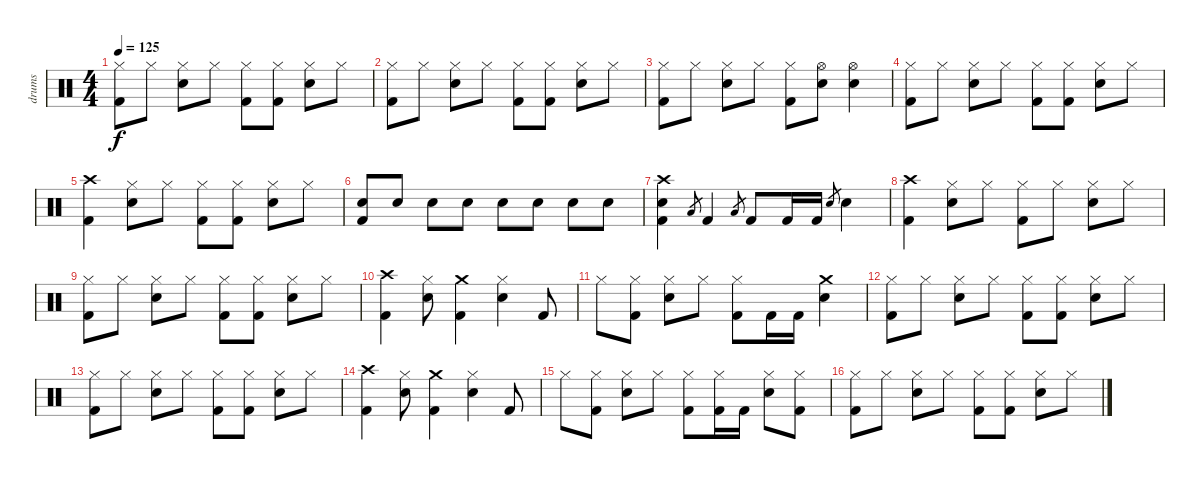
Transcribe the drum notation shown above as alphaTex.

\track ("drums" "drums") {instrument percussion}
\staff {score}
\articulation defaults
\ts (4 4)
\tempo 125
\clef neutral
\ks c
("Hi-Hat (closed)" "Kick (hit) 2").8{dy f} "Hi-Hat (closed)".8 ("Hi-Hat (closed)" "Electric Snare (hit)").8 "Hi-Hat (closed)".8 ("Hi-Hat (closed)" "Kick (hit) 2").8 ("Hi-Hat (closed)" "Kick (hit) 2").8 ("Hi-Hat (closed)" "Electric Snare (hit)").8 "Hi-Hat (closed)".8 |
("Hi-Hat (closed)" "Kick (hit) 2").8 "Hi-Hat (closed)".8 ("Hi-Hat (closed)" "Electric Snare (hit)").8 "Hi-Hat (closed)".8 ("Hi-Hat (closed)" "Kick (hit) 2").8 ("Hi-Hat (closed)" "Kick (hit) 2").8 ("Hi-Hat (closed)" "Electric Snare (hit)").8 "Hi-Hat (closed)".8 |
("Hi-Hat (closed)" "Kick (hit) 2").8 "Hi-Hat (closed)".8 ("Hi-Hat (closed)" "Electric Snare (hit)").8 "Hi-Hat (closed)".8 ("Hi-Hat (closed)" "Kick (hit) 2").8 ("Hi-Hat (open)" "Electric Snare (hit)").8 ("Hi-Hat (open)" "Electric Snare (hit)").4 |
("Hi-Hat (closed)" "Kick (hit) 2").8 "Hi-Hat (closed)".8 ("Hi-Hat (closed)" "Electric Snare (hit)").8 "Hi-Hat (closed)".8 ("Hi-Hat (closed)" "Kick (hit) 2").8 ("Hi-Hat (closed)" "Kick (hit) 2").8 ("Hi-Hat (closed)" "Electric Snare (hit)").8 "Hi-Hat (closed)".8 |
("Crash high (hit)" "Kick (hit) 2").4 ("Hi-Hat (closed)" "Electric Snare (hit)").8 "Hi-Hat (closed)".8 ("Hi-Hat (closed)" "Kick (hit) 2").8 ("Hi-Hat (closed)" "Kick (hit) 2").8 ("Hi-Hat (closed)" "Electric Snare (hit)").8 "Hi-Hat (closed)".8 |
("Electric Snare (hit)" "Kick (hit) 2").8 "Electric Snare (hit)".8 "Electric Snare (hit)".8 "Electric Snare (hit)".8 "Electric Snare (hit)".8 "Electric Snare (hit)".8 "Electric Snare (hit)".8 "Electric Snare (hit)".8 |
("Crash high (hit)" "Electric Snare (hit)" "Kick (hit) 2").4 "Low Floor Tom (hit)".8{gr} "Kick (hit) 2".4 "Low Floor Tom (hit)".8{gr} "Kick (hit) 2".8 "Kick (hit) 2".16 "Kick (hit) 2".16 "Electric Snare (hit)".8{gr} "Electric Snare (hit)".4 |
("Crash high (hit)" "Kick (hit) 2").4 ("Hi-Hat (closed)" "Electric Snare (hit)").8 "Hi-Hat (closed)".8 ("Hi-Hat (closed)" "Kick (hit) 2").8 "Hi-Hat (closed)".8 ("Hi-Hat (closed)" "Electric Snare (hit)").8 "Hi-Hat (closed)".8 |
("Hi-Hat (closed)" "Kick (hit) 2").8 "Hi-Hat (closed)".8 ("Hi-Hat (closed)" "Electric Snare (hit)").8 "Hi-Hat (closed)".8 ("Hi-Hat (closed)" "Kick (hit) 2").8 ("Hi-Hat (closed)" "Kick (hit) 2").8 ("Hi-Hat (closed)" "Electric Snare (hit)").8 "Hi-Hat (closed)".8 |
("Crash high (hit)" "Kick (hit) 2").4 ("Hi-Hat (closed)" "Electric Snare (hit)").8 ("Crash medium (hit)" "Kick (hit) 2").4 ("Hi-Hat (closed)" "Electric Snare (hit)").4 "Kick (hit) 2".8 |
"Hi-Hat (closed)".8 ("Hi-Hat (closed)" "Kick (hit) 2").8 ("Hi-Hat (closed)" "Electric Snare (hit)").8 "Hi-Hat (closed)".8 ("Hi-Hat (closed)" "Kick (hit) 2").8 "Kick (hit) 2".16 "Kick (hit) 2".16 ("Crash medium (hit)" "Electric Snare (hit)").4 |
("Hi-Hat (closed)" "Kick (hit) 2").8 "Hi-Hat (closed)".8 ("Hi-Hat (closed)" "Electric Snare (hit)").8 "Hi-Hat (closed)".8 ("Hi-Hat (closed)" "Kick (hit) 2").8 ("Hi-Hat (closed)" "Kick (hit) 2").8 ("Hi-Hat (closed)" "Electric Snare (hit)").8 "Hi-Hat (closed)".8 |
("Hi-Hat (closed)" "Kick (hit) 2").8 "Hi-Hat (closed)".8 ("Hi-Hat (closed)" "Electric Snare (hit)").8 "Hi-Hat (closed)".8 ("Hi-Hat (closed)" "Kick (hit) 2").8 ("Hi-Hat (closed)" "Kick (hit) 2").8 ("Hi-Hat (closed)" "Electric Snare (hit)").8 "Hi-Hat (closed)".8 |
("Crash high (hit)" "Kick (hit) 2").4 ("Hi-Hat (closed)" "Electric Snare (hit)").8 ("Crash medium (hit)" "Kick (hit) 2").4 ("Hi-Hat (closed)" "Electric Snare (hit)").4 "Kick (hit) 2".8 |
"Hi-Hat (closed)".8 ("Hi-Hat (closed)" "Kick (hit) 2").8 ("Hi-Hat (closed)" "Electric Snare (hit)").8 "Hi-Hat (closed)".8 ("Hi-Hat (closed)" "Kick (hit) 2").8 ("Hi-Hat (closed)" "Kick (hit) 2").16 "Kick (hit) 2".16 ("Hi-Hat (closed)" "Electric Snare (hit)").8 ("Hi-Hat (closed)" "Kick (hit) 2").8 |
("Hi-Hat (closed)" "Kick (hit) 2").8 "Hi-Hat (closed)".8 ("Hi-Hat (closed)" "Electric Snare (hit)").8 "Hi-Hat (closed)".8 ("Hi-Hat (closed)" "Kick (hit) 2").8 ("Hi-Hat (closed)" "Kick (hit) 2").8 ("Hi-Hat (closed)" "Electric Snare (hit)").8 "Hi-Hat (closed)".8
